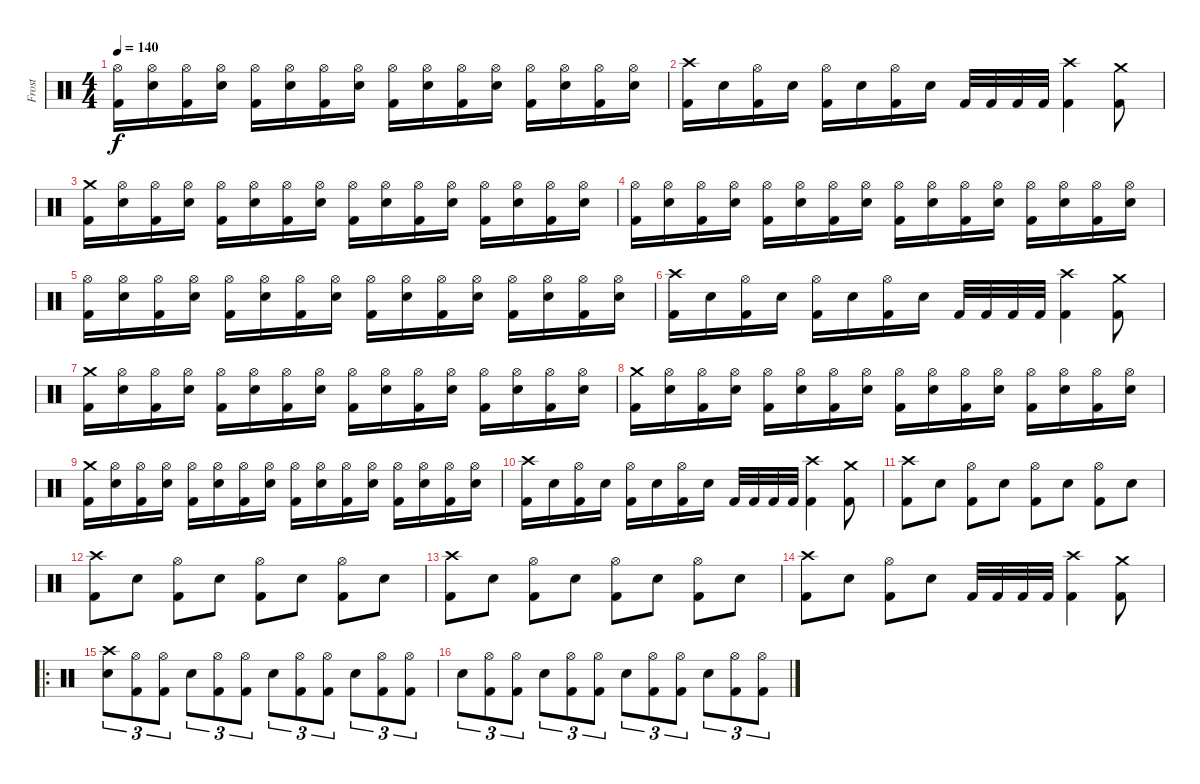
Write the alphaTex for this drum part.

\track ("Frost" "Frost") {instrument percussion}
\staff {score}
\articulation defaults
\ts (4 4)
\tempo 140
\clef neutral
\ks c
("Hi-Hat (open)" "Kick (hit) 2").16{dy f} ("Hi-Hat (open)" "Snare (hit) 2").16 ("Hi-Hat (open)" "Kick (hit) 2").16 ("Hi-Hat (open)" "Snare (hit) 2").16 ("Hi-Hat (open)" "Kick (hit) 2").16 ("Hi-Hat (open)" "Snare (hit) 2").16 ("Hi-Hat (open)" "Kick (hit) 2").16 ("Hi-Hat (open)" "Snare (hit) 2").16 ("Hi-Hat (open)" "Kick (hit) 2").16 ("Hi-Hat (open)" "Snare (hit) 2").16 ("Hi-Hat (open)" "Kick (hit) 2").16 ("Hi-Hat (open)" "Snare (hit) 2").16 ("Hi-Hat (open)" "Kick (hit) 2").16 ("Hi-Hat (open)" "Snare (hit) 2").16 ("Hi-Hat (open)" "Kick (hit) 2").16 ("Hi-Hat (open)" "Snare (hit) 2").16 |
("Crash high (hit)" "Kick (hit) 2").16 "Snare (hit) 2".16 ("Hi-Hat (open)" "Kick (hit) 2").16 "Snare (hit) 2".16 ("Hi-Hat (open)" "Kick (hit) 2").16 "Snare (hit) 2".16 ("Hi-Hat (open)" "Kick (hit) 2").16 "Snare (hit) 2".16 "Kick (hit) 2".32 "Kick (hit) 2".32 "Kick (hit) 2".32 "Kick (hit) 2".32 ("Crash high (hit)" "Kick (hit) 2").4 ("Crash medium (hit)" "Kick (hit) 2").8 |
("Crash medium (hit)" "Kick (hit) 2").16 ("Hi-Hat (open)" "Snare (hit) 2").16 ("Hi-Hat (open)" "Kick (hit) 2").16 ("Hi-Hat (open)" "Snare (hit) 2").16 ("Hi-Hat (open)" "Kick (hit) 2").16 ("Hi-Hat (open)" "Snare (hit) 2").16 ("Hi-Hat (open)" "Kick (hit) 2").16 ("Hi-Hat (open)" "Snare (hit) 2").16 ("Hi-Hat (open)" "Kick (hit) 2").16 ("Hi-Hat (open)" "Snare (hit) 2").16 ("Hi-Hat (open)" "Kick (hit) 2").16 ("Hi-Hat (open)" "Snare (hit) 2").16 ("Hi-Hat (open)" "Kick (hit) 2").16 ("Hi-Hat (open)" "Snare (hit) 2").16 ("Hi-Hat (open)" "Kick (hit) 2").16 ("Hi-Hat (open)" "Snare (hit) 2").16 |
("Hi-Hat (open)" "Kick (hit) 2").16 ("Hi-Hat (open)" "Snare (hit) 2").16 ("Hi-Hat (open)" "Kick (hit) 2").16 ("Hi-Hat (open)" "Snare (hit) 2").16 ("Hi-Hat (open)" "Kick (hit) 2").16 ("Hi-Hat (open)" "Snare (hit) 2").16 ("Hi-Hat (open)" "Kick (hit) 2").16 ("Hi-Hat (open)" "Snare (hit) 2").16 ("Hi-Hat (open)" "Kick (hit) 2").16 ("Hi-Hat (open)" "Snare (hit) 2").16 ("Hi-Hat (open)" "Kick (hit) 2").16 ("Hi-Hat (open)" "Snare (hit) 2").16 ("Hi-Hat (open)" "Kick (hit) 2").16 ("Hi-Hat (open)" "Snare (hit) 2").16 ("Hi-Hat (open)" "Kick (hit) 2").16 ("Hi-Hat (open)" "Snare (hit) 2").16 |
("Hi-Hat (open)" "Kick (hit) 2").16 ("Hi-Hat (open)" "Snare (hit) 2").16 ("Hi-Hat (open)" "Kick (hit) 2").16 ("Hi-Hat (open)" "Snare (hit) 2").16 ("Hi-Hat (open)" "Kick (hit) 2").16 ("Hi-Hat (open)" "Snare (hit) 2").16 ("Hi-Hat (open)" "Kick (hit) 2").16 ("Hi-Hat (open)" "Snare (hit) 2").16 ("Hi-Hat (open)" "Kick (hit) 2").16 ("Hi-Hat (open)" "Snare (hit) 2").16 ("Hi-Hat (open)" "Kick (hit) 2").16 ("Hi-Hat (open)" "Snare (hit) 2").16 ("Hi-Hat (open)" "Kick (hit) 2").16 ("Hi-Hat (open)" "Snare (hit) 2").16 ("Hi-Hat (open)" "Kick (hit) 2").16 ("Hi-Hat (open)" "Snare (hit) 2").16 |
("Crash high (hit)" "Kick (hit) 2").16 "Snare (hit) 2".16 ("Hi-Hat (open)" "Kick (hit) 2").16 "Snare (hit) 2".16 ("Hi-Hat (open)" "Kick (hit) 2").16 "Snare (hit) 2".16 ("Hi-Hat (open)" "Kick (hit) 2").16 "Snare (hit) 2".16 "Kick (hit) 2".32 "Kick (hit) 2".32 "Kick (hit) 2".32 "Kick (hit) 2".32 ("Crash high (hit)" "Kick (hit) 2").4 ("Crash medium (hit)" "Kick (hit) 2").8 |
("Crash medium (hit)" "Kick (hit) 2").16 ("Hi-Hat (open)" "Snare (hit) 2").16 ("Hi-Hat (open)" "Kick (hit) 2").16 ("Hi-Hat (open)" "Snare (hit) 2").16 ("Hi-Hat (open)" "Kick (hit) 2").16 ("Hi-Hat (open)" "Snare (hit) 2").16 ("Hi-Hat (open)" "Kick (hit) 2").16 ("Hi-Hat (open)" "Snare (hit) 2").16 ("Hi-Hat (open)" "Kick (hit) 2").16 ("Hi-Hat (open)" "Snare (hit) 2").16 ("Hi-Hat (open)" "Kick (hit) 2").16 ("Hi-Hat (open)" "Snare (hit) 2").16 ("Hi-Hat (open)" "Kick (hit) 2").16 ("Hi-Hat (open)" "Snare (hit) 2").16 ("Hi-Hat (open)" "Kick (hit) 2").16 ("Hi-Hat (open)" "Snare (hit) 2").16 |
("Crash medium (hit)" "Kick (hit) 2").16 ("Hi-Hat (open)" "Snare (hit) 2").16 ("Hi-Hat (open)" "Kick (hit) 2").16 ("Hi-Hat (open)" "Snare (hit) 2").16 ("Hi-Hat (open)" "Kick (hit) 2").16 ("Hi-Hat (open)" "Snare (hit) 2").16 ("Hi-Hat (open)" "Kick (hit) 2").16 ("Hi-Hat (open)" "Snare (hit) 2").16 ("Hi-Hat (open)" "Kick (hit) 2").16 ("Hi-Hat (open)" "Snare (hit) 2").16 ("Hi-Hat (open)" "Kick (hit) 2").16 ("Hi-Hat (open)" "Snare (hit) 2").16 ("Hi-Hat (open)" "Kick (hit) 2").16 ("Hi-Hat (open)" "Snare (hit) 2").16 ("Hi-Hat (open)" "Kick (hit) 2").16 ("Hi-Hat (open)" "Snare (hit) 2").16 |
("Crash medium (hit)" "Kick (hit) 2").16 ("Hi-Hat (open)" "Snare (hit) 2").16 ("Hi-Hat (open)" "Kick (hit) 2").16 ("Hi-Hat (open)" "Snare (hit) 2").16 ("Hi-Hat (open)" "Kick (hit) 2").16 ("Hi-Hat (open)" "Snare (hit) 2").16 ("Hi-Hat (open)" "Kick (hit) 2").16 ("Hi-Hat (open)" "Snare (hit) 2").16 ("Hi-Hat (open)" "Kick (hit) 2").16 ("Hi-Hat (open)" "Snare (hit) 2").16 ("Hi-Hat (open)" "Kick (hit) 2").16 ("Hi-Hat (open)" "Snare (hit) 2").16 ("Hi-Hat (open)" "Kick (hit) 2").16 ("Hi-Hat (open)" "Snare (hit) 2").16 ("Hi-Hat (open)" "Kick (hit) 2").16 ("Hi-Hat (open)" "Snare (hit) 2").16 |
("Crash high (hit)" "Kick (hit) 2").16 "Snare (hit) 2".16 ("Hi-Hat (open)" "Kick (hit) 2").16 "Snare (hit) 2".16 ("Hi-Hat (open)" "Kick (hit) 2").16 "Snare (hit) 2".16 ("Hi-Hat (open)" "Kick (hit) 2").16 "Snare (hit) 2".16 "Kick (hit) 2".32 "Kick (hit) 2".32 "Kick (hit) 2".32 "Kick (hit) 2".32 ("Crash high (hit)" "Kick (hit) 2").4 ("Crash medium (hit)" "Kick (hit) 2").8 |
("Crash high (hit)" "Kick (hit) 2").8 "Snare (hit) 2".8 ("Hi-Hat (open)" "Kick (hit) 2").8 "Snare (hit) 2".8 ("Hi-Hat (open)" "Kick (hit) 2").8 "Snare (hit) 2".8 ("Hi-Hat (open)" "Kick (hit) 2").8 "Snare (hit) 2".8 |
("Crash high (hit)" "Kick (hit) 2").8 "Snare (hit) 2".8 ("Hi-Hat (open)" "Kick (hit) 2").8 "Snare (hit) 2".8 ("Hi-Hat (open)" "Kick (hit) 2").8 "Snare (hit) 2".8 ("Hi-Hat (open)" "Kick (hit) 2").8 "Snare (hit) 2".8 |
("Crash high (hit)" "Kick (hit) 2").8 "Snare (hit) 2".8 ("Hi-Hat (open)" "Kick (hit) 2").8 "Snare (hit) 2".8 ("Hi-Hat (open)" "Kick (hit) 2").8 "Snare (hit) 2".8 ("Hi-Hat (open)" "Kick (hit) 2").8 "Snare (hit) 2".8 |
("Crash high (hit)" "Kick (hit) 2").8 "Snare (hit) 2".8 ("Hi-Hat (open)" "Kick (hit) 2").8 "Snare (hit) 2".8 "Kick (hit) 2".32 "Kick (hit) 2".32 "Kick (hit) 2".32 "Kick (hit) 2".32 ("Crash high (hit)" "Kick (hit) 2").4 ("Crash medium (hit)" "Kick (hit) 2").8 |
\ro
("Crash high (hit)" "Snare (hit) 2").8{tu (3 2)} ("Hi-Hat (open)" "Kick (hit) 2").8{tu (3 2)} ("Hi-Hat (open)" "Kick (hit) 2").8{tu (3 2)} "Snare (hit) 2".8{tu (3 2)} ("Hi-Hat (open)" "Kick (hit) 2").8{tu (3 2)} ("Hi-Hat (open)" "Kick (hit) 2").8{tu (3 2)} "Snare (hit) 2".8{tu (3 2)} ("Hi-Hat (open)" "Kick (hit) 2").8{tu (3 2)} ("Hi-Hat (open)" "Kick (hit) 2").8{tu (3 2)} "Snare (hit) 2".8{tu (3 2)} ("Hi-Hat (open)" "Kick (hit) 2").8{tu (3 2)} ("Hi-Hat (open)" "Kick (hit) 2").8{tu (3 2)} |
"Snare (hit) 2".8{tu (3 2)} ("Hi-Hat (open)" "Kick (hit) 2").8{tu (3 2)} ("Hi-Hat (open)" "Kick (hit) 2").8{tu (3 2)} "Snare (hit) 2".8{tu (3 2)} ("Hi-Hat (open)" "Kick (hit) 2").8{tu (3 2)} ("Hi-Hat (open)" "Kick (hit) 2").8{tu (3 2)} "Snare (hit) 2".8{tu (3 2)} ("Hi-Hat (open)" "Kick (hit) 2").8{tu (3 2)} ("Hi-Hat (open)" "Kick (hit) 2").8{tu (3 2)} "Snare (hit) 2".8{tu (3 2)} ("Hi-Hat (open)" "Kick (hit) 2").8{tu (3 2)} ("Hi-Hat (open)" "Kick (hit) 2").8{tu (3 2)}
